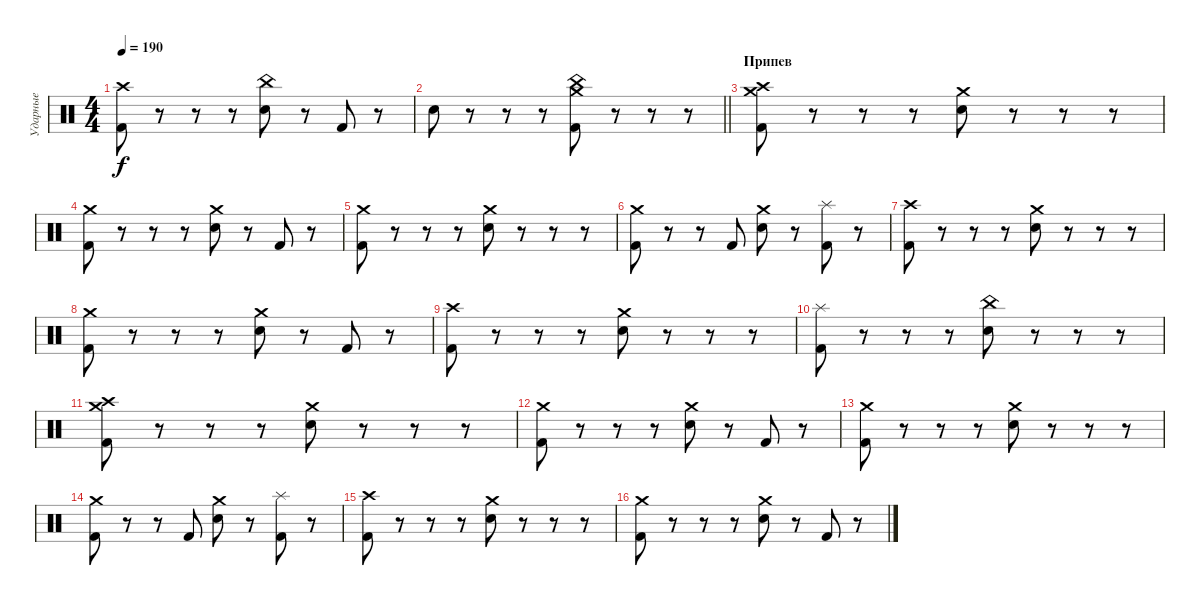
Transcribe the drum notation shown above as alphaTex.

\track ("Ударные" "Ударные") {instrument percussion}
\staff {score}
\articulation defaults
\ts (4 4)
\tempo 190
\clef neutral
\ks c
("Kick (hit) 2" "Crash high (hit)").8{dy f} r.8 r.8 r.8 ("Electric Snare (hit)" "China (hit)").8 r.8 "Kick (hit) 2".8 r.8 |
\barLineRight lightlight "Electric Snare (hit)".8
r.8 r.8 r.8 ("Kick (hit) 2" "Crash medium (hit)" "China (hit)").8 r.8 r.8 r.8 |
\section ("" "Припев")
("Kick (hit) 2" "Crash high (hit)" "Crash medium (hit)").8 r.8 r.8 r.8 ("Electric Snare (hit)" "Crash medium (hit)").8 r.8 r.8 r.8 |
("Kick (hit) 2" "Crash medium (hit)").8 r.8 r.8 r.8 ("Electric Snare (hit)" "Crash medium (hit)").8 r.8 "Kick (hit) 2".8 r.8 |
("Kick (hit) 2" "Crash medium (hit)").8 r.8 r.8 r.8 ("Electric Snare (hit)" "Crash medium (hit)").8 r.8 r.8 r.8 |
("Kick (hit) 2" "Crash medium (hit)").8 r.8 r.8 "Kick (hit) 2".8 ("Electric Snare (hit)" "Crash medium (hit)").8 r.8 ("Kick (hit) 2" "Splash (hit)").8 r.8 |
("Kick (hit) 2" "Crash high (hit)").8 r.8 r.8 r.8 ("Electric Snare (hit)" "Crash medium (hit)").8 r.8 r.8 r.8 |
("Kick (hit) 2" "Crash medium (hit)").8 r.8 r.8 r.8 ("Electric Snare (hit)" "Crash medium (hit)").8 r.8 "Kick (hit) 2".8 r.8 |
("Kick (hit) 2" "Crash high (hit)").8 r.8 r.8 r.8 ("Electric Snare (hit)" "Crash medium (hit)").8 r.8 r.8 r.8 |
("Kick (hit) 2" "Splash (hit)").8 r.8 r.8 r.8 ("Electric Snare (hit)" "China (hit)").8 r.8 r.8 r.8 |
("Kick (hit) 2" "Crash high (hit)" "Crash medium (hit)").8 r.8 r.8 r.8 ("Electric Snare (hit)" "Crash medium (hit)").8 r.8 r.8 r.8 |
("Kick (hit) 2" "Crash medium (hit)").8 r.8 r.8 r.8 ("Electric Snare (hit)" "Crash medium (hit)").8 r.8 "Kick (hit) 2".8 r.8 |
("Kick (hit) 2" "Crash medium (hit)").8 r.8 r.8 r.8 ("Electric Snare (hit)" "Crash medium (hit)").8 r.8 r.8 r.8 |
("Kick (hit) 2" "Crash medium (hit)").8 r.8 r.8 "Kick (hit) 2".8 ("Electric Snare (hit)" "Crash medium (hit)").8 r.8 ("Kick (hit) 2" "Splash (hit)").8 r.8 |
("Kick (hit) 2" "Crash high (hit)").8 r.8 r.8 r.8 ("Electric Snare (hit)" "Crash medium (hit)").8 r.8 r.8 r.8 |
("Kick (hit) 2" "Crash medium (hit)").8 r.8 r.8 r.8 ("Electric Snare (hit)" "Crash medium (hit)").8 r.8 "Kick (hit) 2".8 r.8
